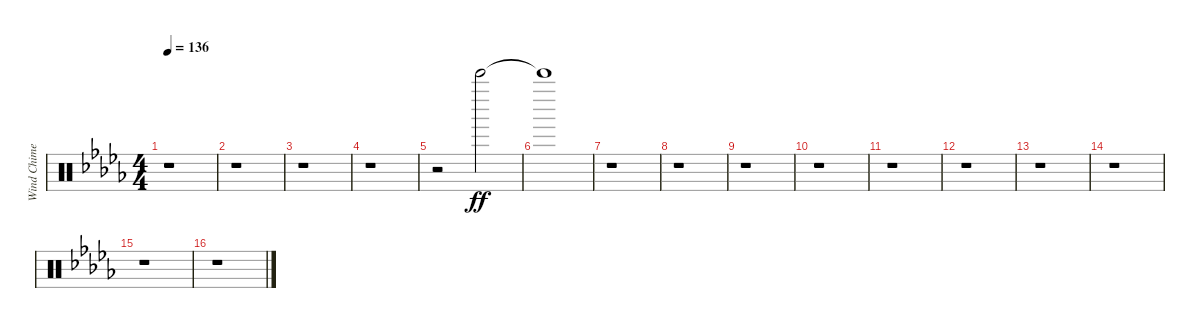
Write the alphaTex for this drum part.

\track ("Wind Chimes" "Wind Chime") {instrument percussion}
\staff {score}
\articulation defaults
\ts (4 4)
\tempo 136
\clef neutral
\ks db
r.1{dy ff} |
r.1 |
r.1 |
r.1 |
r.2 "Bell Tree (hit)".2 |
"Bell Tree (hit)"{t}.1 |
r.1 |
r.1 |
r.1 |
r.1 |
r.1 |
r.1 |
r.1 |
r.1 |
r.1 |
r.1
